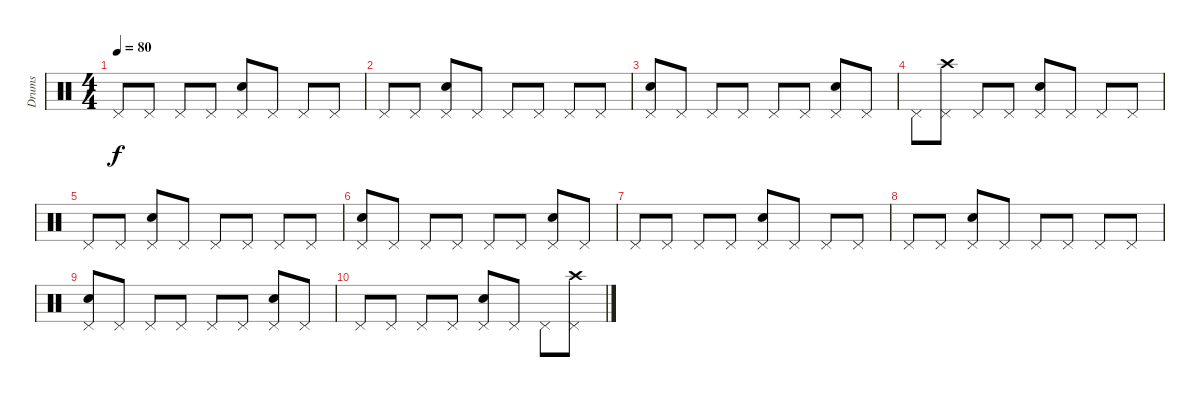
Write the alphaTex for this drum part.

\track ("Drums" "Drums") {instrument percussion}
\staff {score}
\articulation defaults
\ts (4 4)
\tempo 80
\clef neutral
\ks c "Pedal Hi-Hat (hit)".8{dy f} "Pedal Hi-Hat (hit)".8 "Pedal Hi-Hat (hit)".8 "Pedal Hi-Hat (hit)".8
("Electric Snare (hit)" "Pedal Hi-Hat (hit)").8 "Pedal Hi-Hat (hit)".8 "Pedal Hi-Hat (hit)".8 "Pedal Hi-Hat (hit)".8 |
"Pedal Hi-Hat (hit)".8 "Pedal Hi-Hat (hit)".8 ("Electric Snare (hit)" "Pedal Hi-Hat (hit)").8 "Pedal Hi-Hat (hit)".8 "Pedal Hi-Hat (hit)".8 "Pedal Hi-Hat (hit)".8 "Pedal Hi-Hat (hit)".8 "Pedal Hi-Hat (hit)".8 |
("Electric Snare (hit)" "Pedal Hi-Hat (hit)").8 "Pedal Hi-Hat (hit)".8 "Pedal Hi-Hat (hit)".8 "Pedal Hi-Hat (hit)".8 "Pedal Hi-Hat (hit)".8 "Pedal Hi-Hat (hit)".8 ("Electric Snare (hit)" "Pedal Hi-Hat (hit)").8 "Pedal Hi-Hat (hit)".8 |
"Pedal Hi-Hat (hit)".8 ("Crash high (hit)" "Pedal Hi-Hat (hit)").8 "Pedal Hi-Hat (hit)".8 "Pedal Hi-Hat (hit)".8 ("Electric Snare (hit)" "Pedal Hi-Hat (hit)").8 "Pedal Hi-Hat (hit)".8 "Pedal Hi-Hat (hit)".8 "Pedal Hi-Hat (hit)".8 |
"Pedal Hi-Hat (hit)".8 "Pedal Hi-Hat (hit)".8 ("Electric Snare (hit)" "Pedal Hi-Hat (hit)").8 "Pedal Hi-Hat (hit)".8 "Pedal Hi-Hat (hit)".8 "Pedal Hi-Hat (hit)".8 "Pedal Hi-Hat (hit)".8 "Pedal Hi-Hat (hit)".8 |
("Electric Snare (hit)" "Pedal Hi-Hat (hit)").8 "Pedal Hi-Hat (hit)".8 "Pedal Hi-Hat (hit)".8 "Pedal Hi-Hat (hit)".8 "Pedal Hi-Hat (hit)".8 "Pedal Hi-Hat (hit)".8 ("Electric Snare (hit)" "Pedal Hi-Hat (hit)").8 "Pedal Hi-Hat (hit)".8 |
"Pedal Hi-Hat (hit)".8 "Pedal Hi-Hat (hit)".8 "Pedal Hi-Hat (hit)".8 "Pedal Hi-Hat (hit)".8 ("Electric Snare (hit)" "Pedal Hi-Hat (hit)").8 "Pedal Hi-Hat (hit)".8 "Pedal Hi-Hat (hit)".8 "Pedal Hi-Hat (hit)".8 |
"Pedal Hi-Hat (hit)".8 "Pedal Hi-Hat (hit)".8 ("Electric Snare (hit)" "Pedal Hi-Hat (hit)").8 "Pedal Hi-Hat (hit)".8 "Pedal Hi-Hat (hit)".8 "Pedal Hi-Hat (hit)".8 "Pedal Hi-Hat (hit)".8 "Pedal Hi-Hat (hit)".8 |
("Electric Snare (hit)" "Pedal Hi-Hat (hit)").8 "Pedal Hi-Hat (hit)".8 "Pedal Hi-Hat (hit)".8 "Pedal Hi-Hat (hit)".8 "Pedal Hi-Hat (hit)".8 "Pedal Hi-Hat (hit)".8 ("Electric Snare (hit)" "Pedal Hi-Hat (hit)").8 "Pedal Hi-Hat (hit)".8 |
"Pedal Hi-Hat (hit)".8 "Pedal Hi-Hat (hit)".8 "Pedal Hi-Hat (hit)".8 "Pedal Hi-Hat (hit)".8 ("Electric Snare (hit)" "Pedal Hi-Hat (hit)").8 "Pedal Hi-Hat (hit)".8 "Pedal Hi-Hat (hit)".8 ("Crash high (hit)" "Pedal Hi-Hat (hit)").8
